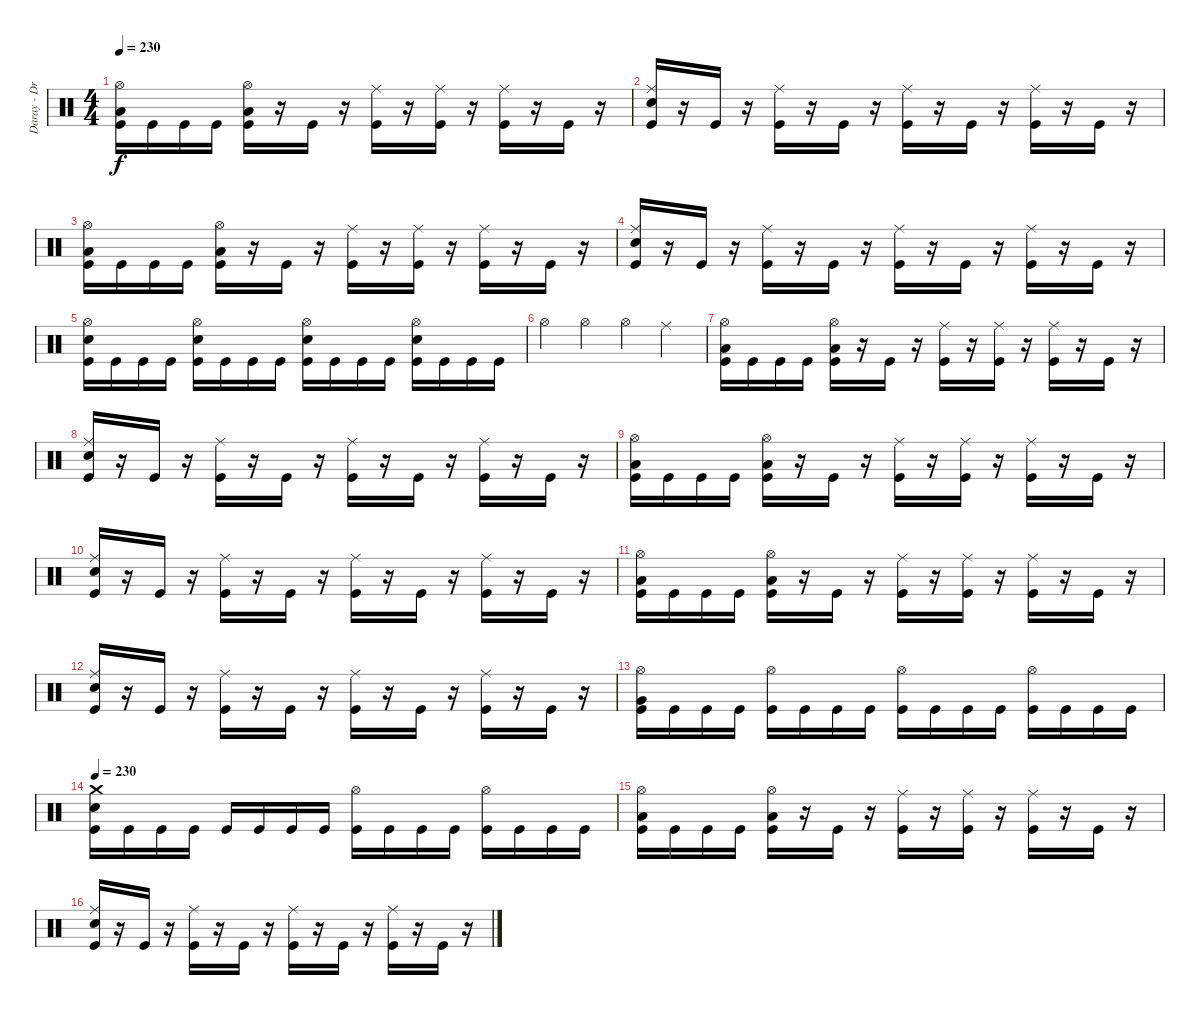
\track ("Daray - Drums" "Daray - Dr") {instrument percussion}
\staff {score}
\articulation defaults
\ts (4 4)
\tempo 230
\clef neutral
\ks c
("Hi-Hat (open)" "Low Floor Tom (hit)" "Kick (hit)").16{dy f} "Kick (hit)".16 "Kick (hit)".16 "Kick (hit)".16 ("Hi-Hat (open)" "Low Floor Tom (hit)" "Kick (hit)").16 r.16 "Kick (hit)".16 r.16 ("Ride (middle)" "Kick (hit)").16 r.16 ("Ride (middle)" "Kick (hit)").16 r.16 ("Ride (middle)" "Kick (hit)").16 r.16 "Kick (hit)".16 r.16 |
("Ride (middle)" "Electric Snare (hit)" "Kick (hit)").16 r.16 "Kick (hit)".16 r.16 ("Ride (middle)" "Kick (hit)").16 r.16 "Kick (hit)".16 r.16 ("Ride (middle)" "Kick (hit)").16 r.16 "Kick (hit)".16 r.16 ("Ride (middle)" "Kick (hit)").16 r.16 "Kick (hit)".16 r.16 |
("Hi-Hat (open)" "Low Floor Tom (hit)" "Kick (hit)").16 "Kick (hit)".16 "Kick (hit)".16 "Kick (hit)".16 ("Hi-Hat (open)" "Low Floor Tom (hit)" "Kick (hit)").16 r.16 "Kick (hit)".16 r.16 ("Ride (middle)" "Kick (hit)").16 r.16 ("Ride (middle)" "Kick (hit)").16 r.16 ("Ride (middle)" "Kick (hit)").16 r.16 "Kick (hit)".16 r.16 |
("Ride (middle)" "Electric Snare (hit)" "Kick (hit)").16 r.16 "Kick (hit)".16 r.16 ("Ride (middle)" "Kick (hit)").16 r.16 "Kick (hit)".16 r.16 ("Ride (middle)" "Kick (hit)").16 r.16 "Kick (hit)".16 r.16 ("Ride (middle)" "Kick (hit)").16 r.16 "Kick (hit)".16 r.16 |
("Hi-Hat (open)" "Electric Snare (hit)" "Kick (hit)").16 "Kick (hit)".16 "Kick (hit)".16 "Kick (hit)".16 ("Hi-Hat (open)" "Electric Snare (hit)" "Kick (hit)").16 "Kick (hit)".16 "Kick (hit)".16 "Kick (hit)".16 ("Hi-Hat (open)" "Electric Snare (hit)" "Kick (hit)").16 "Kick (hit)".16 "Kick (hit)".16 "Kick (hit)".16 ("Hi-Hat (open)" "Electric Snare (hit)" "Kick (hit)").16 "Kick (hit)".16 "Kick (hit)".16 "Kick (hit)".16 |
"Hi-Hat (open)".4 "Hi-Hat (open)".4 "Hi-Hat (open)".4 "Ride (middle)".4 |
("Hi-Hat (open)" "Low Floor Tom (hit)" "Kick (hit)").16 "Kick (hit)".16 "Kick (hit)".16 "Kick (hit)".16 ("Hi-Hat (open)" "Low Floor Tom (hit)" "Kick (hit)").16 r.16 "Kick (hit)".16 r.16 ("Ride (middle)" "Kick (hit)").16 r.16 ("Ride (middle)" "Kick (hit)").16 r.16 ("Ride (middle)" "Kick (hit)").16 r.16 "Kick (hit)".16 r.16 |
("Ride (middle)" "Electric Snare (hit)" "Kick (hit)").16 r.16 "Kick (hit)".16 r.16 ("Ride (middle)" "Kick (hit)").16 r.16 "Kick (hit)".16 r.16 ("Ride (middle)" "Kick (hit)").16 r.16 "Kick (hit)".16 r.16 ("Ride (middle)" "Kick (hit)").16 r.16 "Kick (hit)".16 r.16 |
("Hi-Hat (open)" "Low Floor Tom (hit)" "Kick (hit)").16 "Kick (hit)".16 "Kick (hit)".16 "Kick (hit)".16 ("Hi-Hat (open)" "Low Floor Tom (hit)" "Kick (hit)").16 r.16 "Kick (hit)".16 r.16 ("Ride (middle)" "Kick (hit)").16 r.16 ("Ride (middle)" "Kick (hit)").16 r.16 ("Ride (middle)" "Kick (hit)").16 r.16 "Kick (hit)".16 r.16 |
("Ride (middle)" "Electric Snare (hit)" "Kick (hit)").16 r.16 "Kick (hit)".16 r.16 ("Ride (middle)" "Kick (hit)").16 r.16 "Kick (hit)".16 r.16 ("Ride (middle)" "Kick (hit)").16 r.16 "Kick (hit)".16 r.16 ("Ride (middle)" "Kick (hit)").16 r.16 "Kick (hit)".16 r.16 |
("Hi-Hat (open)" "Low Floor Tom (hit)" "Kick (hit)").16 "Kick (hit)".16 "Kick (hit)".16 "Kick (hit)".16 ("Hi-Hat (open)" "Low Floor Tom (hit)" "Kick (hit)").16 r.16 "Kick (hit)".16 r.16 ("Ride (middle)" "Kick (hit)").16 r.16 ("Ride (middle)" "Kick (hit)").16 r.16 ("Ride (middle)" "Kick (hit)").16 r.16 "Kick (hit)".16 r.16 |
("Ride (middle)" "Electric Snare (hit)" "Kick (hit)").16 r.16 "Kick (hit)".16 r.16 ("Ride (middle)" "Kick (hit)").16 r.16 "Kick (hit)".16 r.16 ("Ride (middle)" "Kick (hit)").16 r.16 "Kick (hit)".16 r.16 ("Ride (middle)" "Kick (hit)").16 r.16 "Kick (hit)".16 r.16 |
("Hi-Hat (open)" "Very Low Tom (hit)" "Kick (hit)").16 "Kick (hit)".16 "Kick (hit)".16 "Kick (hit)".16 ("Hi-Hat (open)" "Kick (hit)").16 "Kick (hit)".16 "Kick (hit)".16 "Kick (hit)".16 ("Hi-Hat (open)" "Kick (hit)").16 "Kick (hit)".16 "Kick (hit)".16 "Kick (hit)".16 ("Hi-Hat (open)" "Kick (hit)").16 "Kick (hit)".16 "Kick (hit)".16 "Kick (hit)".16 |
\tempo 230
("Crash medium (hit)" "Electric Snare (hit)" "Kick (hit)").16 "Kick (hit)".16 "Kick (hit)".16 "Kick (hit)".16 "Kick (hit)".16 "Kick (hit)".16 "Kick (hit)".16 "Kick (hit)".16 ("Hi-Hat (open)" "Kick (hit)").16 "Kick (hit)".16 "Kick (hit)".16 "Kick (hit)".16 ("Hi-Hat (open)" "Kick (hit)").16 "Kick (hit)".16 "Kick (hit)".16 "Kick (hit)".16 |
("Hi-Hat (open)" "Low Floor Tom (hit)" "Kick (hit)").16 "Kick (hit)".16 "Kick (hit)".16 "Kick (hit)".16 ("Hi-Hat (open)" "Low Floor Tom (hit)" "Kick (hit)").16 r.16 "Kick (hit)".16 r.16 ("Ride (middle)" "Kick (hit)").16 r.16 ("Ride (middle)" "Kick (hit)").16 r.16 ("Ride (middle)" "Kick (hit)").16 r.16 "Kick (hit)".16 r.16 |
("Ride (middle)" "Electric Snare (hit)" "Kick (hit)").16 r.16 "Kick (hit)".16 r.16 ("Ride (middle)" "Kick (hit)").16 r.16 "Kick (hit)".16 r.16 ("Ride (middle)" "Kick (hit)").16 r.16 "Kick (hit)".16 r.16 ("Ride (middle)" "Kick (hit)").16 r.16 "Kick (hit)".16 r.16
